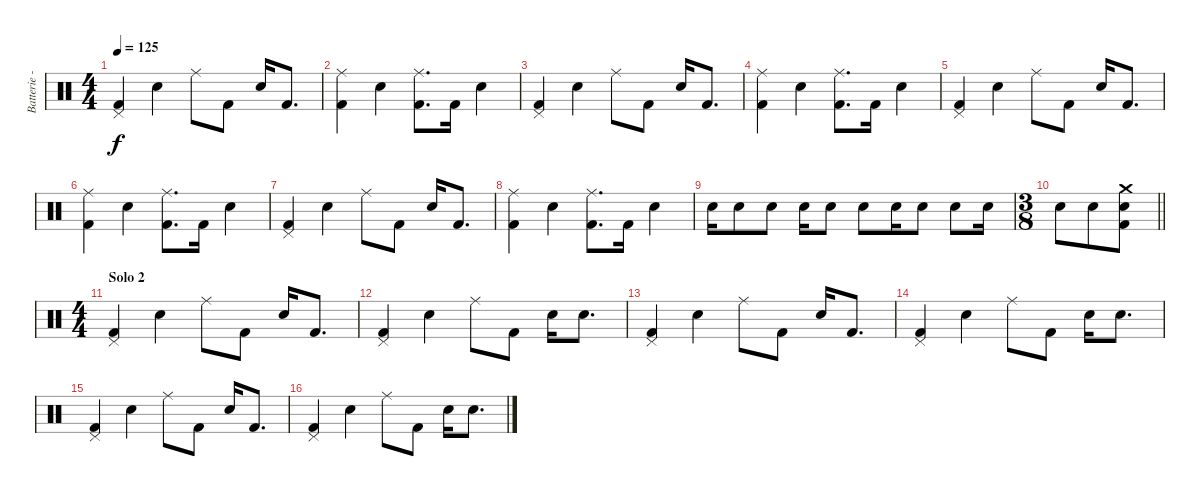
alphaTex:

\track ("Batterie - Shane Gaalaas" "Batterie -") {instrument percussion}
\staff {score}
\articulation defaults
\ts (4 4)
\tempo 125
\clef neutral
\ks c
("Pedal Hi-Hat (hit)" "Kick (hit) 2").4{dy f} "Electric Snare (hit)".4 "Ride (middle)".8 "Kick (hit) 2".8 "Electric Snare (hit)".16 "Kick (hit) 2".8{d} |
("Ride (middle)" "Kick (hit) 2").4 "Electric Snare (hit)".4 ("Ride (middle)" "Kick (hit) 2").8{d} "Kick (hit) 2".16 "Electric Snare (hit)".4 |
("Pedal Hi-Hat (hit)" "Kick (hit) 2").4 "Electric Snare (hit)".4 "Ride (middle)".8 "Kick (hit) 2".8 "Electric Snare (hit)".16 "Kick (hit) 2".8{d} |
("Ride (middle)" "Kick (hit) 2").4 "Electric Snare (hit)".4 ("Ride (middle)" "Kick (hit) 2").8{d} "Kick (hit) 2".16 "Electric Snare (hit)".4 |
("Pedal Hi-Hat (hit)" "Kick (hit) 2").4 "Electric Snare (hit)".4 "Ride (middle)".8 "Kick (hit) 2".8 "Electric Snare (hit)".16 "Kick (hit) 2".8{d} |
("Ride (middle)" "Kick (hit) 2").4 "Electric Snare (hit)".4 ("Ride (middle)" "Kick (hit) 2").8{d} "Kick (hit) 2".16 "Electric Snare (hit)".4 |
("Pedal Hi-Hat (hit)" "Kick (hit) 2").4 "Electric Snare (hit)".4 "Ride (middle)".8 "Kick (hit) 2".8 "Electric Snare (hit)".16 "Kick (hit) 2".8{d} |
("Ride (middle)" "Kick (hit) 2").4 "Electric Snare (hit)".4 ("Ride (middle)" "Kick (hit) 2").8{d} "Kick (hit) 2".16 "Electric Snare (hit)".4 |
"Electric Snare (hit)".16 "Electric Snare (hit)".8 "Electric Snare (hit)".8 "Electric Snare (hit)".16 "Electric Snare (hit)".8 "Electric Snare (hit)".8 "Electric Snare (hit)".16 "Electric Snare (hit)".8 "Electric Snare (hit)".8 "Electric Snare (hit)".16 |
\ts (3 8)
\barLineRight lightlight "Electric Snare (hit)".8 "Electric Snare (hit)".8
("Crash medium (hit)" "Electric Snare (hit)" "Kick (hit) 2").8 |
\ts (4 4)
\section ("" "Solo 2")
("Pedal Hi-Hat (hit)" "Kick (hit) 2").4 "Electric Snare (hit)".4 "Ride (middle)".8 "Kick (hit) 2".8 "Electric Snare (hit)".16 "Kick (hit) 2".8{d} |
("Pedal Hi-Hat (hit)" "Kick (hit) 2").4 "Electric Snare (hit)".4 "Ride (middle)".8 "Kick (hit) 2".8 "Electric Snare (hit)".16 "Electric Snare (hit)".8{d} |
("Pedal Hi-Hat (hit)" "Kick (hit) 2").4 "Electric Snare (hit)".4 "Ride (middle)".8 "Kick (hit) 2".8 "Electric Snare (hit)".16 "Kick (hit) 2".8{d} |
("Pedal Hi-Hat (hit)" "Kick (hit) 2").4 "Electric Snare (hit)".4 "Ride (middle)".8 "Kick (hit) 2".8 "Electric Snare (hit)".16 "Electric Snare (hit)".8{d} |
("Pedal Hi-Hat (hit)" "Kick (hit) 2").4 "Electric Snare (hit)".4 "Ride (middle)".8 "Kick (hit) 2".8 "Electric Snare (hit)".16 "Kick (hit) 2".8{d} |
("Pedal Hi-Hat (hit)" "Kick (hit) 2").4 "Electric Snare (hit)".4 "Ride (middle)".8 "Kick (hit) 2".8 "Electric Snare (hit)".16 "Electric Snare (hit)".8{d}
